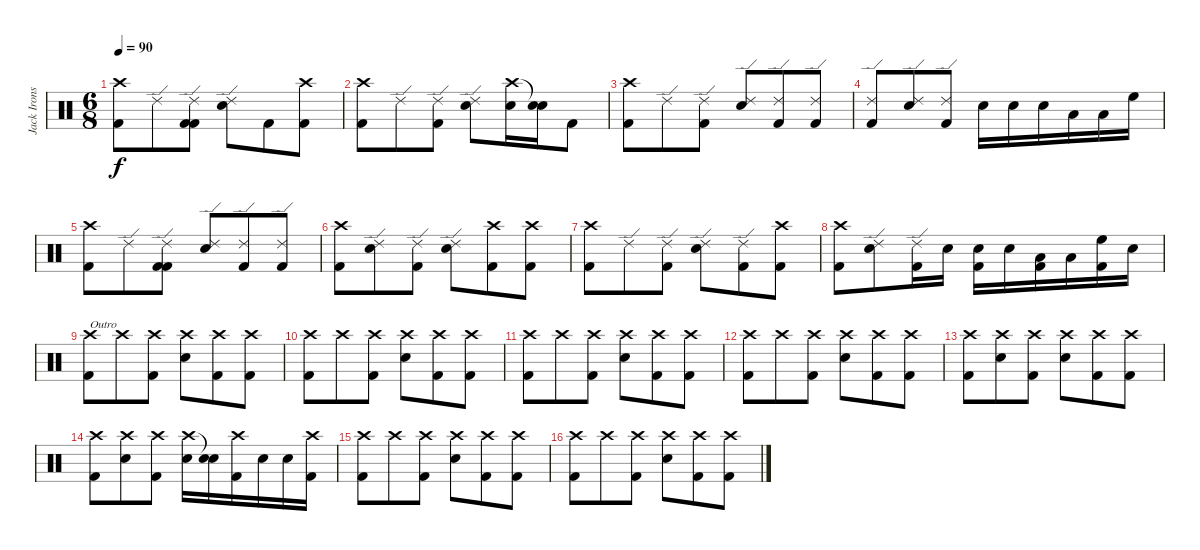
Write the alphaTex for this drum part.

\track ("Jack Irons" "Jack Irons") {instrument percussion}
\staff {score}
\articulation defaults
\ts (6 8)
\tempo 90
\clef neutral
\ks c
("Crash high (hit)" "Kick (hit) 2").8{dy f} "Ride (edge) 2".8 ("Ride (edge) 2" "Kick (hit) 2" "Kick (hit) 2").8 ("Ride (edge) 2" "Snare (hit) 2").8 "Kick (hit) 2".8 ("Crash high (hit)" "Kick (hit) 2").8 |
("Crash high (hit)" "Kick (hit) 2").8 "Ride (edge) 2".8 ("Ride (edge) 2" "Kick (hit) 2").8 ("Ride (edge) 2" "Snare (hit) 2").8 ("Crash high (hit)" "Snare (hit) 2").16 ("Snare (hit)"{t} "Snare (hit) 2").16 "Kick (hit) 2".8 |
("Crash high (hit)" "Kick (hit) 2").8 "Ride (edge) 2".8 ("Ride (edge) 2" "Kick (hit) 2").8 ("Ride (edge) 2" "Snare (hit) 2").8 ("Ride (edge) 2" "Kick (hit) 2").8 ("Ride (edge) 2" "Kick (hit) 2").8 |
("Ride (edge) 2" "Kick (hit) 2").8 ("Ride (edge) 2" "Snare (hit) 2").8 ("Ride (edge) 2" "Kick (hit) 2").8 "Snare (hit) 2".16 "Snare (hit) 2".16 "Snare (hit) 2".16 "Low Tom (hit)".16 "Low Tom (hit)".16 "High Floor Tom (hit)".16 |
("Crash high (hit)" "Kick (hit) 2").8 "Ride (edge) 2".8 ("Ride (edge) 2" "Kick (hit) 2" "Kick (hit) 2").8 ("Ride (edge) 2" "Snare (hit) 2").8 ("Ride (edge) 2" "Kick (hit) 2").8 ("Ride (edge) 2" "Kick (hit) 2").8 |
("Crash high (hit)" "Kick (hit) 2").8 ("Ride (edge) 2" "Snare (hit) 2").8 ("Ride (edge) 2" "Kick (hit) 2").8 ("Ride (edge) 2" "Snare (hit) 2").8 ("Crash high (hit)" "Kick (hit) 2").8 ("Crash high (hit)" "Kick (hit) 2").8 |
("Crash high (hit)" "Kick (hit) 2").8 "Ride (edge) 2".8 ("Ride (edge) 2" "Kick (hit) 2").8 ("Ride (edge) 2" "Snare (hit) 2").8 ("Ride (edge) 2" "Kick (hit) 2").8 ("Crash high (hit)" "Kick (hit) 2").8 |
("Crash high (hit)" "Kick (hit) 2").8 ("Ride (edge) 2" "Snare (hit) 2").8 ("Ride (edge) 2" "Kick (hit) 2").16 "Snare (hit) 2".16 ("Snare (hit) 2" "Kick (hit) 2").16 "Snare (hit) 2".16 ("Low Tom (hit)" "Kick (hit) 2").16 "Low Tom (hit)".16 ("High Floor Tom (hit)" "Kick (hit) 2").16 "Snare (hit) 2".16 |
("Crash high (hit)" "Kick (hit) 2").8{txt "Outro"} "Crash high (hit)".8 ("Crash high (hit)" "Kick (hit) 2").8 ("Crash high (hit)" "Snare (hit) 2").8 ("Crash high (hit)" "Kick (hit) 2").8 ("Crash high (hit)" "Kick (hit) 2").8 |
("Crash high (hit)" "Kick (hit) 2").8 "Crash high (hit)".8 ("Crash high (hit)" "Kick (hit) 2").8 ("Crash high (hit)" "Snare (hit) 2").8 ("Crash high (hit)" "Kick (hit) 2").8 ("Crash high (hit)" "Kick (hit) 2").8 |
("Crash high (hit)" "Kick (hit) 2").8 "Crash high (hit)".8 ("Crash high (hit)" "Kick (hit) 2").8 ("Crash high (hit)" "Snare (hit) 2").8 ("Crash high (hit)" "Kick (hit) 2").8 ("Crash high (hit)" "Kick (hit) 2").8 |
("Crash high (hit)" "Kick (hit) 2").8 "Crash high (hit)".8 ("Crash high (hit)" "Kick (hit) 2").8 ("Crash high (hit)" "Snare (hit) 2").8 ("Crash high (hit)" "Kick (hit) 2").8 ("Crash high (hit)" "Kick (hit) 2").8 |
("Crash high (hit)" "Kick (hit) 2").8 ("Crash high (hit)" "Snare (hit) 2").8 ("Crash high (hit)" "Kick (hit) 2").8 ("Crash high (hit)" "Snare (hit) 2").8 ("Crash high (hit)" "Kick (hit) 2").8 ("Crash high (hit)" "Kick (hit) 2").8 |
("Crash high (hit)" "Kick (hit) 2").8 ("Crash high (hit)" "Snare (hit) 2").8 ("Crash high (hit)" "Kick (hit) 2").8 ("Crash high (hit)" "Snare (hit) 2").16 ("Snare (hit)"{t} "Snare (hit) 2").16 ("Crash high (hit)" "Kick (hit) 2").16 "Snare (hit) 2".16 "Snare (hit) 2".16 ("Crash high (hit)" "Kick (hit) 2").16 |
("Crash high (hit)" "Kick (hit) 2").8 "Crash high (hit)".8 ("Crash high (hit)" "Kick (hit) 2").8 ("Crash high (hit)" "Snare (hit) 2").8 ("Crash high (hit)" "Kick (hit) 2").8 ("Crash high (hit)" "Kick (hit) 2").8 |
("Crash high (hit)" "Kick (hit) 2").8 "Crash high (hit)".8 ("Crash high (hit)" "Kick (hit) 2").8 ("Crash high (hit)" "Snare (hit) 2").8 ("Crash high (hit)" "Kick (hit) 2").8 ("Crash high (hit)" "Kick (hit) 2").8
